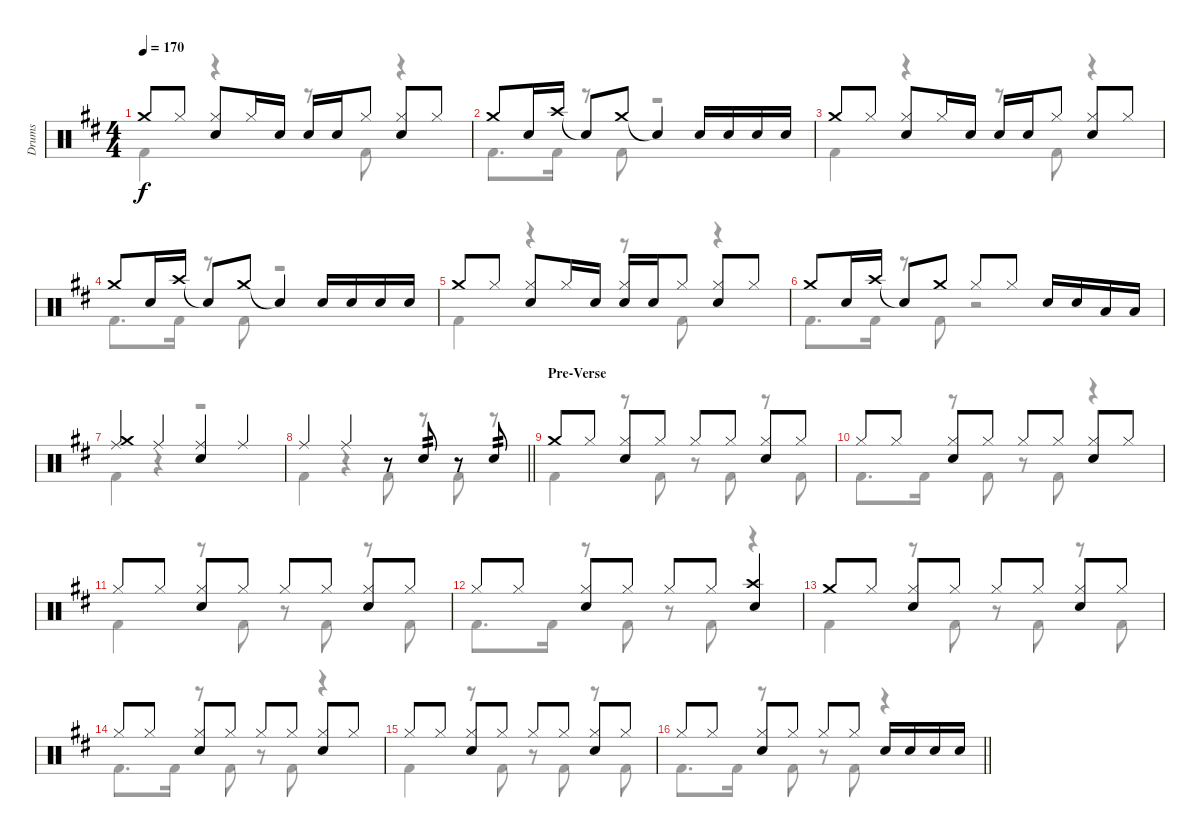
\track ("Drums" "Drums") {instrument percussion}
\staff {score}
\articulation defaults
\voice
\ts (4 4)
\tempo 170
\clef neutral
\ks d "Crash medium (hit)".8{dy f} "Hi-Hat (closed)".8
("Hi-Hat (closed)" "Snare (hit) 2").8 "Hi-Hat (closed)".16 "Snare (hit) 2".16 "Snare (hit) 2".16 "Snare (hit) 2".16 "Hi-Hat (closed)".8 ("Hi-Hat (closed)" "Snare (hit) 2").8 "Hi-Hat (closed)".8 |
"Crash medium (hit)".8 "Snare (hit) 2".16 "Crash high (hit)".16 "Snare (hit)"{t}.8 "Crash medium (hit)".8 "Snare (hit)"{t}.4 "Snare (hit) 2".16 "Snare (hit) 2".16 "Snare (hit) 2".16 "Snare (hit) 2".16 |
"Crash medium (hit)".8 "Hi-Hat (closed)".8 ("Hi-Hat (closed)" "Snare (hit) 2").8 "Hi-Hat (closed)".16 "Snare (hit) 2".16 "Snare (hit) 2".16 "Snare (hit) 2".16 "Hi-Hat (closed)".8 ("Hi-Hat (closed)" "Snare (hit) 2").8 "Hi-Hat (closed)".8 |
"Crash medium (hit)".8 "Snare (hit) 2".16 "Crash high (hit)".16 "Snare (hit)"{t}.8 "Crash medium (hit)".8 "Snare (hit)"{t}.4 "Snare (hit) 2".16 "Snare (hit) 2".16 "Snare (hit) 2".16 "Snare (hit) 2".16 |
"Crash medium (hit)".8 "Hi-Hat (closed)".8 ("Hi-Hat (closed)" "Snare (hit) 2").8 "Hi-Hat (closed)".16 "Snare (hit) 2".16 ("Hi-Hat (closed)" "Snare (hit) 2").16 "Snare (hit) 2".16 "Hi-Hat (closed)".8 ("Hi-Hat (closed)" "Snare (hit) 2").8 "Hi-Hat (closed)".8 |
"Crash medium (hit)".8 "Snare (hit) 2".16 "Crash high (hit)".16 "Snare (hit)"{t}.8 "Crash medium (hit)".8 "Hi-Hat (closed)".8 "Hi-Hat (closed)".8 "Snare (hit) 2".16 "Snare (hit) 2".16 "Low Tom (hit)".16 "Low Tom (hit)".16 |
("Crash medium (hit)" "Ride (middle)").4 "Ride (middle)".4 ("Ride (middle)" "Snare (hit) 2").4 "Ride (middle)".4 |
\barLineRight lightlight "Ride (middle)".4 "Ride (middle)".4
r.8 "Snare (hit) 2".8{tp 2} r.8 "Snare (hit) 2".8{tp 2} |
\section ("" "Pre-Verse")
"Crash medium (hit)".8 "Hi-Hat (closed)".8 ("Hi-Hat (closed)" "Snare (hit) 2").8 "Hi-Hat (closed)".8 "Hi-Hat (closed)".8 "Hi-Hat (closed)".8 ("Hi-Hat (closed)" "Snare (hit) 2").8 "Hi-Hat (closed)".8 |
"Hi-Hat (closed)".8 "Hi-Hat (closed)".8 ("Hi-Hat (closed)" "Snare (hit) 2").8 "Hi-Hat (closed)".8 "Hi-Hat (closed)".8 "Hi-Hat (closed)".8 ("Hi-Hat (closed)" "Snare (hit) 2").8 "Hi-Hat (closed)".8 |
"Hi-Hat (closed)".8 "Hi-Hat (closed)".8 ("Hi-Hat (closed)" "Snare (hit) 2").8 "Hi-Hat (closed)".8 "Hi-Hat (closed)".8 "Hi-Hat (closed)".8 ("Hi-Hat (closed)" "Snare (hit) 2").8 "Hi-Hat (closed)".8 |
"Hi-Hat (closed)".8 "Hi-Hat (closed)".8 ("Hi-Hat (closed)" "Snare (hit) 2").8 "Hi-Hat (closed)".8 "Hi-Hat (closed)".8 "Hi-Hat (closed)".8 ("Crash high (hit)" "Snare (hit) 2").4 |
"Crash medium (hit)".8 "Hi-Hat (closed)".8 ("Hi-Hat (closed)" "Snare (hit) 2").8 "Hi-Hat (closed)".8 "Hi-Hat (closed)".8 "Hi-Hat (closed)".8 ("Hi-Hat (closed)" "Snare (hit) 2").8 "Hi-Hat (closed)".8 |
"Hi-Hat (closed)".8 "Hi-Hat (closed)".8 ("Hi-Hat (closed)" "Snare (hit) 2").8 "Hi-Hat (closed)".8 "Hi-Hat (closed)".8 "Hi-Hat (closed)".8 ("Hi-Hat (closed)" "Snare (hit) 2").8 "Hi-Hat (closed)".8 |
"Hi-Hat (closed)".8 "Hi-Hat (closed)".8 ("Hi-Hat (closed)" "Snare (hit) 2").8 "Hi-Hat (closed)".8 "Hi-Hat (closed)".8 "Hi-Hat (closed)".8 ("Hi-Hat (closed)" "Snare (hit) 2").8 "Hi-Hat (closed)".8 |
\barLineRight lightlight "Hi-Hat (closed)".8 "Hi-Hat (closed)".8
("Hi-Hat (closed)" "Snare (hit) 2").8 "Hi-Hat (closed)".8 "Hi-Hat (closed)".8 "Hi-Hat (closed)".8 "Snare (hit) 2".16 "Snare (hit) 2".16 "Snare (hit) 2".16 "Snare (hit) 2".16
\voice
\clef neutral
\ottava regular
\simile none
\ks d "Kick (hit) 2".4{dy f}
r.4 r.8 "Kick (hit) 2".8 r.4 |
"Kick (hit) 2".8{d} "Kick (hit) 2".16 r.8 "Kick (hit) 2".8 r.2 |
"Kick (hit) 2".4 r.4 r.8 "Kick (hit) 2".8 r.4 |
"Kick (hit) 2".8{d} "Kick (hit) 2".16 r.8 "Kick (hit) 2".8 r.2 |
"Kick (hit) 2".4 r.4 r.8 "Kick (hit) 2".8 r.4 |
"Kick (hit) 2".8{d} "Kick (hit) 2".16 r.8 "Kick (hit) 2".8 r.2 |
"Kick (hit) 2".4 r.4 r.2 |
\barLineRight lightlight "Kick (hit) 2".4
r.4 "Kick (hit) 2".8 r.8 "Kick (hit) 2".8 r.8 |
"Kick (hit) 2".4 r.8 "Kick (hit) 2".8 r.8 "Kick (hit) 2".8 r.8 "Kick (hit) 2".8 |
"Kick (hit) 2".8{d} "Kick (hit) 2".16 r.8 "Kick (hit) 2".8 r.8 "Kick (hit) 2".8 r.4 |
"Kick (hit) 2".4 r.8 "Kick (hit) 2".8 r.8 "Kick (hit) 2".8 r.8 "Kick (hit) 2".8 |
"Kick (hit) 2".8{d} "Kick (hit) 2".16 r.8 "Kick (hit) 2".8 r.8 "Kick (hit) 2".8 r.4 |
"Kick (hit) 2".4 r.8 "Kick (hit) 2".8 r.8 "Kick (hit) 2".8 r.8 "Kick (hit) 2".8 |
"Kick (hit) 2".8{d} "Kick (hit) 2".16 r.8 "Kick (hit) 2".8 r.8 "Kick (hit) 2".8 r.4 |
"Kick (hit) 2".4 r.8 "Kick (hit) 2".8 r.8 "Kick (hit) 2".8 r.8 "Kick (hit) 2".8 |
\barLineRight lightlight "Kick (hit) 2".8{d} "Kick (hit) 2".16
r.8 "Kick (hit) 2".8 r.8 "Kick (hit) 2".8 r.4
